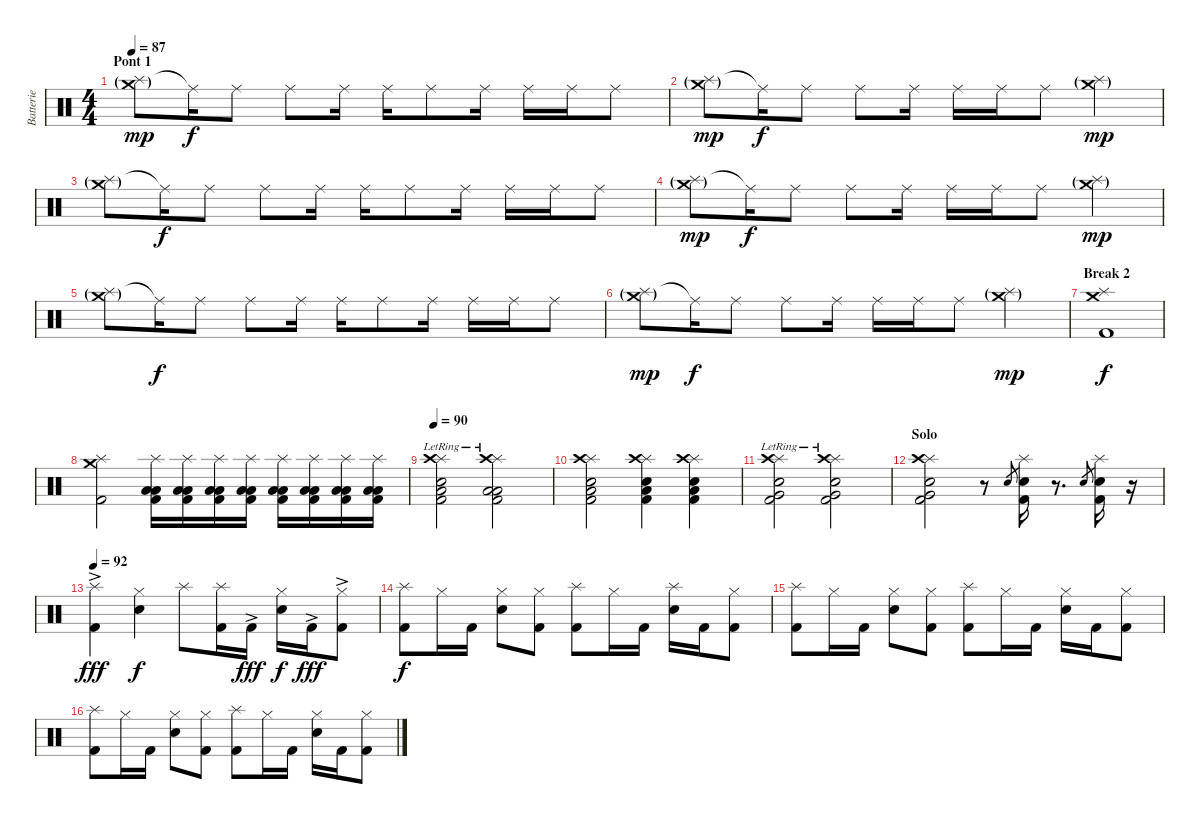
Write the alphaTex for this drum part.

\track ("Batterie" "Batterie") {instrument percussion}
\staff {score}
\articulation defaults
\ts (4 4)
\section ("" "Pont 1")
\tempo 87
\clef neutral
\ks c
("Splash (hit)"{g} "Crash medium (hit)"{g}).8{dy mp} "Ride (middle)"{t}.16{dy f} "Ride (middle)".8 "Ride (middle)".8 "Ride (middle)".16 "Ride (middle)".16 "Ride (middle)".8 "Ride (middle)".16 "Ride (middle)".16 "Ride (middle)".16 "Ride (middle)".8 |
("Splash (hit)"{g} "Crash medium (hit)"{g}).8{dy mp} "Ride (middle)"{t}.16{dy f} "Ride (middle)".8 "Ride (middle)".8 "Ride (middle)".16 "Ride (middle)".16 "Ride (middle)".16 "Ride (middle)".8 ("Splash (hit)"{g} "Crash medium (hit)"{g}).4{dy mp} |
("Splash (hit)"{g} "Crash medium (hit)"{g}).8 "Ride (middle)"{t}.16{dy f} "Ride (middle)".8 "Ride (middle)".8 "Ride (middle)".16 "Ride (middle)".16 "Ride (middle)".8 "Ride (middle)".16 "Ride (middle)".16 "Ride (middle)".16 "Ride (middle)".8 |
("Splash (hit)"{g} "Crash medium (hit)"{g}).8{dy mp} "Ride (middle)"{t}.16{dy f} "Ride (middle)".8 "Ride (middle)".8 "Ride (middle)".16 "Ride (middle)".16 "Ride (middle)".16 "Ride (middle)".8 ("Splash (hit)"{g} "Crash medium (hit)"{g}).4{dy mp} |
("Splash (hit)"{g} "Crash medium (hit)"{g}).8 "Ride (middle)"{t}.16{dy f} "Ride (middle)".8 "Ride (middle)".8 "Ride (middle)".16 "Ride (middle)".16 "Ride (middle)".8 "Ride (middle)".16 "Ride (middle)".16 "Ride (middle)".16 "Ride (middle)".8 |
("Splash (hit)"{g} "Crash medium (hit)"{g}).8{dy mp} "Ride (middle)"{t}.16{dy f} "Ride (middle)".8 "Ride (middle)".8 "Ride (middle)".16 "Ride (middle)".16 "Ride (middle)".16 "Ride (middle)".8 ("Splash (hit)"{g} "Crash medium (hit)"{g}).4{dy mp} |
\section ("" "Break 2")
("Splash (hit)" "Crash medium (hit)" "Kick (hit) 2").1{dy f} |
("Splash (hit)" "Crash medium (hit)" "Kick (hit) 2").2 ("Splash (hit)" "Low Tom (hit)" "Low Floor Tom (hit)" "Kick (hit) 2").16 ("Splash (hit)" "Low Tom (hit)" "Low Floor Tom (hit)" "Kick (hit) 2").16 ("Splash (hit)" "Low Tom (hit)" "Low Floor Tom (hit)" "Kick (hit) 2").16 ("Splash (hit)" "Low Tom (hit)" "Low Floor Tom (hit)" "Kick (hit) 2").16 ("Splash (hit)" "Low Tom (hit)" "Low Floor Tom (hit)" "Kick (hit) 2").16 ("Splash (hit)" "Low Tom (hit)" "Low Floor Tom (hit)" "Kick (hit) 2").16 ("Splash (hit)" "Low Tom (hit)" "Low Floor Tom (hit)" "Kick (hit) 2").16 ("Splash (hit)" "Low Tom (hit)" "Low Floor Tom (hit)" "Kick (hit) 2").16 |
\tempo 90
("Splash (hit)"{lr} "Crash high (hit)" "Low Tom (hit)" "Snare (hit) 2" "Kick (hit) 2").2 ("Splash (hit)"{lr} "Crash high (hit)" "Low Tom (hit)" "Low Floor Tom (hit)" "Kick (hit) 2").2 |
("Splash (hit)" "Crash high (hit)" "Low Tom (hit)" "Snare (hit) 2" "Kick (hit) 2").2 ("Splash (hit)" "Crash high (hit)" "Low Tom (hit)" "Snare (hit) 2" "Kick (hit) 2").4 ("Splash (hit)" "Crash high (hit)" "Low Tom (hit)" "Snare (hit) 2" "Kick (hit) 2").4 |
("Splash (hit)"{lr} "Crash high (hit)" "Very Low Tom (hit)" "Snare (hit) 2" "Kick (hit) 2").2 ("Splash (hit)"{lr} "Crash high (hit)" "Very Low Tom (hit)" "Snare (hit) 2" "Kick (hit) 2").2 |
\section ("" "Solo")
("Splash (hit)" "Crash high (hit)" "Very Low Tom (hit)" "Snare (hit) 2" "Kick (hit) 2").2 r.8 "Snare (hit) 2".8{gr} ("Splash (hit)" "Snare (hit) 2" "Kick (hit) 2").16 r.8{d} "Snare (hit) 2".8{gr} ("Splash (hit)" "Snare (hit) 2" "Kick (hit) 2").16 r.16 |
\tempo 92
("Splash (hit)" "Kick (hit) 2"{ac}).4{dy fff} ("Hi-Hat (closed)" "Snare (hit) 2").4{dy f} "Splash (hit)".8 ("Splash (hit)" "Kick (hit) 2").16 "Kick (hit) 2"{ac}.16{dy fff} ("Hi-Hat (closed)" "Snare (hit) 2").16{dy f} "Kick (hit) 2"{ac}.16{dy fff} ("Hi-Hat (closed)" "Kick (hit) 2"{ac}).8 |
("Splash (hit)" "Kick (hit) 2").8{dy f} "Hi-Hat (closed)".16 "Kick (hit) 2".16 ("Hi-Hat (closed)" "Snare (hit) 2").8 ("Hi-Hat (closed)" "Kick (hit) 2").8 ("Splash (hit)" "Kick (hit) 2").8 "Hi-Hat (closed)".16 "Kick (hit) 2".16 ("Splash (hit)" "Snare (hit) 2").16 "Kick (hit) 2".16 ("Hi-Hat (closed)" "Kick (hit) 2").8 |
("Splash (hit)" "Kick (hit) 2").8 "Hi-Hat (closed)".16 "Kick (hit) 2".16 ("Hi-Hat (closed)" "Snare (hit) 2").8 ("Hi-Hat (closed)" "Kick (hit) 2").8 ("Splash (hit)" "Kick (hit) 2").8 "Hi-Hat (closed)".16 "Kick (hit) 2".16 ("Hi-Hat (closed)" "Snare (hit) 2").16 "Kick (hit) 2".16 ("Hi-Hat (closed)" "Kick (hit) 2").8 |
("Splash (hit)" "Kick (hit) 2").8 "Hi-Hat (closed)".16 "Kick (hit) 2".16 ("Hi-Hat (closed)" "Snare (hit) 2").8 ("Hi-Hat (closed)" "Kick (hit) 2").8 ("Splash (hit)" "Kick (hit) 2").8 "Hi-Hat (closed)".16 "Kick (hit) 2".16 ("Hi-Hat (closed)" "Snare (hit) 2").16 "Kick (hit) 2".16 ("Hi-Hat (closed)" "Kick (hit) 2").8
